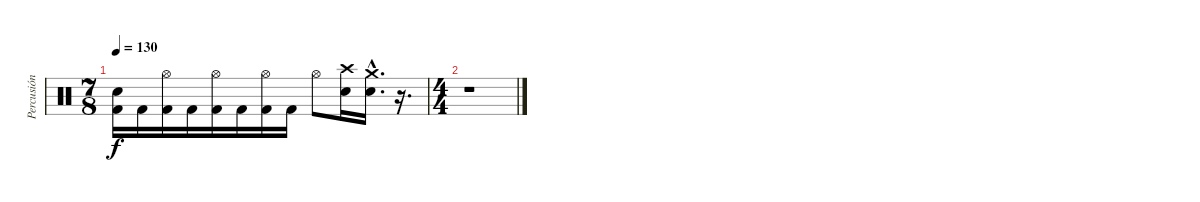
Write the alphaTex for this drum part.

\track ("Percusión" "Percusión") {instrument percussion}
\staff {score}
\articulation defaults
\ts (7 8)
\tempo 130
\clef neutral
\ks c
("Electric Snare (hit)" "Kick (hit) 2").16{dy f} "Kick (hit) 2".16 ("Hi-Hat (open)" "Kick (hit) 2").16 "Kick (hit) 2".16 ("Hi-Hat (open)" "Kick (hit) 2").16 "Kick (hit) 2".16 ("Hi-Hat (open)" "Kick (hit) 2").16 "Kick (hit) 2".16 "Hi-Hat (open)".8 ("Crash high (hit)" "Electric Snare (hit)").16 ("Crash medium (hit)"{hac} "Electric Snare (hit)"{hac}).16{d} r.16{d} |
\ts (4 4)
r.1
